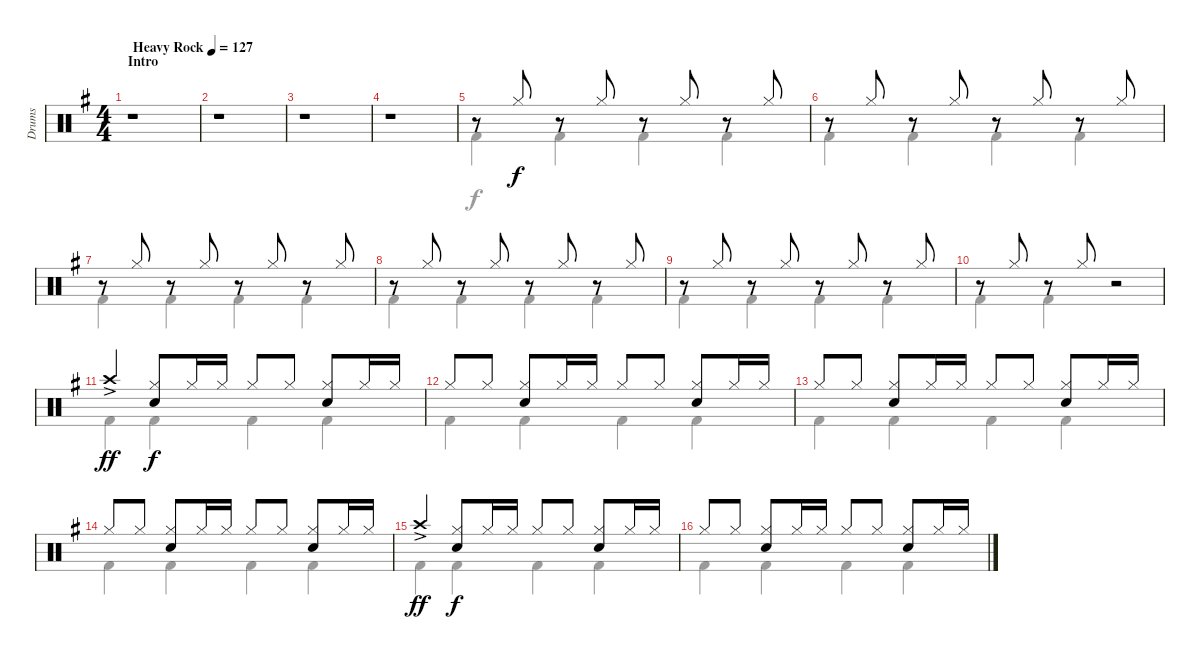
\track ("Drums" "Drums") {instrument percussion}
\staff {score}
\articulation defaults
\voice
\ts (4 4)
\section ("" "Intro")
\tempo (127 "Heavy Rock")
\clef neutral
\ks g
r.1{dy f} |
r.1 |
r.1 |
r.1 |
r.8 "Hi-Hat (closed)".8 r.8 "Hi-Hat (closed)".8 r.8 "Hi-Hat (closed)".8 r.8 "Hi-Hat (closed)".8 |
r.8 "Hi-Hat (closed)".8 r.8 "Hi-Hat (closed)".8 r.8 "Hi-Hat (closed)".8 r.8 "Hi-Hat (closed)".8 |
r.8 "Hi-Hat (closed)".8 r.8 "Hi-Hat (closed)".8 r.8 "Hi-Hat (closed)".8 r.8 "Hi-Hat (closed)".8 |
r.8 "Hi-Hat (closed)".8 r.8 "Hi-Hat (closed)".8 r.8 "Hi-Hat (closed)".8 r.8 "Hi-Hat (closed)".8 |
r.8 "Hi-Hat (closed)".8 r.8 "Hi-Hat (closed)".8 r.8 "Hi-Hat (closed)".8 r.8 "Hi-Hat (closed)".8 |
r.8 "Hi-Hat (closed)".8 r.8 "Hi-Hat (closed)".8 r.2 |
"Crash high (hit)"{ac}.4{dy ff} ("Hi-Hat (closed)" "Snare (hit) 2").8{dy f} "Hi-Hat (closed)".16 "Hi-Hat (closed)".16 "Hi-Hat (closed)".8 "Hi-Hat (closed)".8 ("Hi-Hat (closed)" "Snare (hit) 2").8 "Hi-Hat (closed)".16 "Hi-Hat (closed)".16 |
"Hi-Hat (closed)".8 "Hi-Hat (closed)".8 ("Hi-Hat (closed)" "Snare (hit) 2").8 "Hi-Hat (closed)".16 "Hi-Hat (closed)".16 "Hi-Hat (closed)".8 "Hi-Hat (closed)".8 ("Hi-Hat (closed)" "Snare (hit) 2").8 "Hi-Hat (closed)".16 "Hi-Hat (closed)".16 |
"Hi-Hat (closed)".8 "Hi-Hat (closed)".8 ("Hi-Hat (closed)" "Snare (hit) 2").8 "Hi-Hat (closed)".16 "Hi-Hat (closed)".16 "Hi-Hat (closed)".8 "Hi-Hat (closed)".8 ("Hi-Hat (closed)" "Snare (hit) 2").8 "Hi-Hat (closed)".16 "Hi-Hat (closed)".16 |
"Hi-Hat (closed)".8 "Hi-Hat (closed)".8 ("Hi-Hat (closed)" "Snare (hit) 2").8 "Hi-Hat (closed)".16 "Hi-Hat (closed)".16 "Hi-Hat (closed)".8 "Hi-Hat (closed)".8 ("Hi-Hat (closed)" "Snare (hit) 2").8 "Hi-Hat (closed)".16 "Hi-Hat (closed)".16 |
"Crash high (hit)"{ac}.4{dy ff} ("Hi-Hat (closed)" "Snare (hit) 2").8{dy f} "Hi-Hat (closed)".16 "Hi-Hat (closed)".16 "Hi-Hat (closed)".8 "Hi-Hat (closed)".8 ("Hi-Hat (closed)" "Snare (hit) 2").8 "Hi-Hat (closed)".16 "Hi-Hat (closed)".16 |
"Hi-Hat (closed)".8 "Hi-Hat (closed)".8 ("Hi-Hat (closed)" "Snare (hit) 2").8 "Hi-Hat (closed)".16 "Hi-Hat (closed)".16 "Hi-Hat (closed)".8 "Hi-Hat (closed)".8 ("Hi-Hat (closed)" "Snare (hit) 2").8 "Hi-Hat (closed)".16 "Hi-Hat (closed)".16
\voice
\clef neutral
\ottava regular
\simile none
\ks g
|
|
|
|
"Kick (hit) 2".4 "Kick (hit) 2".4 "Kick (hit) 2".4 "Kick (hit) 2".4 |
"Kick (hit) 2".4 "Kick (hit) 2".4 "Kick (hit) 2".4 "Kick (hit) 2".4 |
"Kick (hit) 2".4 "Kick (hit) 2".4 "Kick (hit) 2".4 "Kick (hit) 2".4 |
"Kick (hit) 2".4 "Kick (hit) 2".4 "Kick (hit) 2".4 "Kick (hit) 2".4 |
"Kick (hit) 2".4 "Kick (hit) 2".4 "Kick (hit) 2".4 "Kick (hit) 2".4 |
"Kick (hit) 2".4 "Kick (hit) 2".4 r.2 |
"Kick (hit) 2".4 "Kick (hit) 2".4 "Kick (hit) 2".4 "Kick (hit) 2".4 |
"Kick (hit) 2".4 "Kick (hit) 2".4 "Kick (hit) 2".4 "Kick (hit) 2".4 |
"Kick (hit) 2".4 "Kick (hit) 2".4 "Kick (hit) 2".4 "Kick (hit) 2".4 |
"Kick (hit) 2".4 "Kick (hit) 2".4 "Kick (hit) 2".4 "Kick (hit) 2".4 |
"Kick (hit) 2".4 "Kick (hit) 2".4 "Kick (hit) 2".4 "Kick (hit) 2".4 |
"Kick (hit) 2".4 "Kick (hit) 2".4 "Kick (hit) 2".4 "Kick (hit) 2".4
